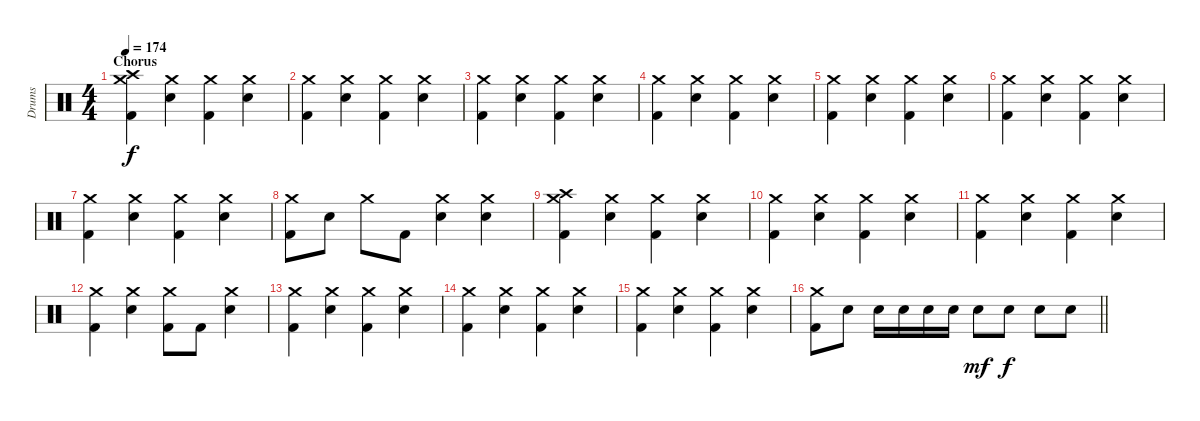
\track ("Drums" "Drums") {instrument percussion}
\staff {score}
\articulation defaults
\ts (4 4)
\section ("" "Chorus")
\tempo 174
\clef neutral
\ks c
("Crash medium (hit)" "Crash high (hit)" "Kick (hit) 2").4{dy f} ("Crash medium (hit)" "Electric Snare (hit)").4 ("Crash medium (hit)" "Kick (hit) 2").4 ("Crash medium (hit)" "Electric Snare (hit)").4 |
("Crash medium (hit)" "Kick (hit) 2").4 ("Crash medium (hit)" "Electric Snare (hit)").4 ("Crash medium (hit)" "Kick (hit) 2").4 ("Crash medium (hit)" "Electric Snare (hit)").4 |
("Crash medium (hit)" "Kick (hit) 2").4 ("Crash medium (hit)" "Electric Snare (hit)").4 ("Crash medium (hit)" "Kick (hit) 2").4 ("Crash medium (hit)" "Electric Snare (hit)").4 |
("Crash medium (hit)" "Kick (hit) 2").4 ("Crash medium (hit)" "Electric Snare (hit)").4 ("Crash medium (hit)" "Kick (hit) 2").4 ("Crash medium (hit)" "Electric Snare (hit)").4 |
("Crash medium (hit)" "Kick (hit) 2").4 ("Crash medium (hit)" "Electric Snare (hit)").4 ("Crash medium (hit)" "Kick (hit) 2").4 ("Crash medium (hit)" "Electric Snare (hit)").4 |
("Crash medium (hit)" "Kick (hit) 2").4 ("Crash medium (hit)" "Electric Snare (hit)").4 ("Crash medium (hit)" "Kick (hit) 2").4 ("Crash medium (hit)" "Electric Snare (hit)").4 |
("Crash medium (hit)" "Kick (hit) 2").4 ("Crash medium (hit)" "Electric Snare (hit)").4 ("Crash medium (hit)" "Kick (hit) 2").4 ("Crash medium (hit)" "Electric Snare (hit)").4 |
("Crash medium (hit)" "Kick (hit) 2").8 "Electric Snare (hit)".8 "Crash medium (hit)".8 "Kick (hit) 2".8 ("Crash medium (hit)" "Electric Snare (hit)").4 ("Crash medium (hit)" "Electric Snare (hit)").4 |
("Crash medium (hit)" "Crash high (hit)" "Kick (hit) 2").4 ("Crash medium (hit)" "Electric Snare (hit)").4 ("Crash medium (hit)" "Kick (hit) 2").4 ("Crash medium (hit)" "Electric Snare (hit)").4 |
("Crash medium (hit)" "Kick (hit) 2").4 ("Crash medium (hit)" "Electric Snare (hit)").4 ("Crash medium (hit)" "Kick (hit) 2").4 ("Crash medium (hit)" "Electric Snare (hit)").4 |
("Crash medium (hit)" "Kick (hit) 2").4 ("Crash medium (hit)" "Electric Snare (hit)").4 ("Crash medium (hit)" "Kick (hit) 2").4 ("Crash medium (hit)" "Electric Snare (hit)").4 |
("Crash medium (hit)" "Kick (hit) 2").4 ("Crash medium (hit)" "Electric Snare (hit)").4 ("Crash medium (hit)" "Kick (hit) 2").8 "Kick (hit) 2".8 ("Crash medium (hit)" "Electric Snare (hit)").4 |
("Crash medium (hit)" "Kick (hit) 2").4 ("Crash medium (hit)" "Electric Snare (hit)").4 ("Crash medium (hit)" "Kick (hit) 2").4 ("Crash medium (hit)" "Electric Snare (hit)").4 |
("Crash medium (hit)" "Kick (hit) 2").4 ("Crash medium (hit)" "Electric Snare (hit)").4 ("Crash medium (hit)" "Kick (hit) 2").4 ("Crash medium (hit)" "Electric Snare (hit)").4 |
("Crash medium (hit)" "Kick (hit) 2").4 ("Crash medium (hit)" "Electric Snare (hit)").4 ("Crash medium (hit)" "Kick (hit) 2").4 ("Crash medium (hit)" "Electric Snare (hit)").4 |
\barLineRight lightlight
("Crash medium (hit)" "Kick (hit) 2").8 "Electric Snare (hit)".8 "Electric Snare (hit)".16 "Electric Snare (hit)".16 "Electric Snare (hit)".16 "Electric Snare (hit)".16 "Electric Snare (hit)".8{dy mf} "Electric Snare (hit)".8{dy f} "Electric Snare (hit)".8 "Electric Snare (hit)".8
